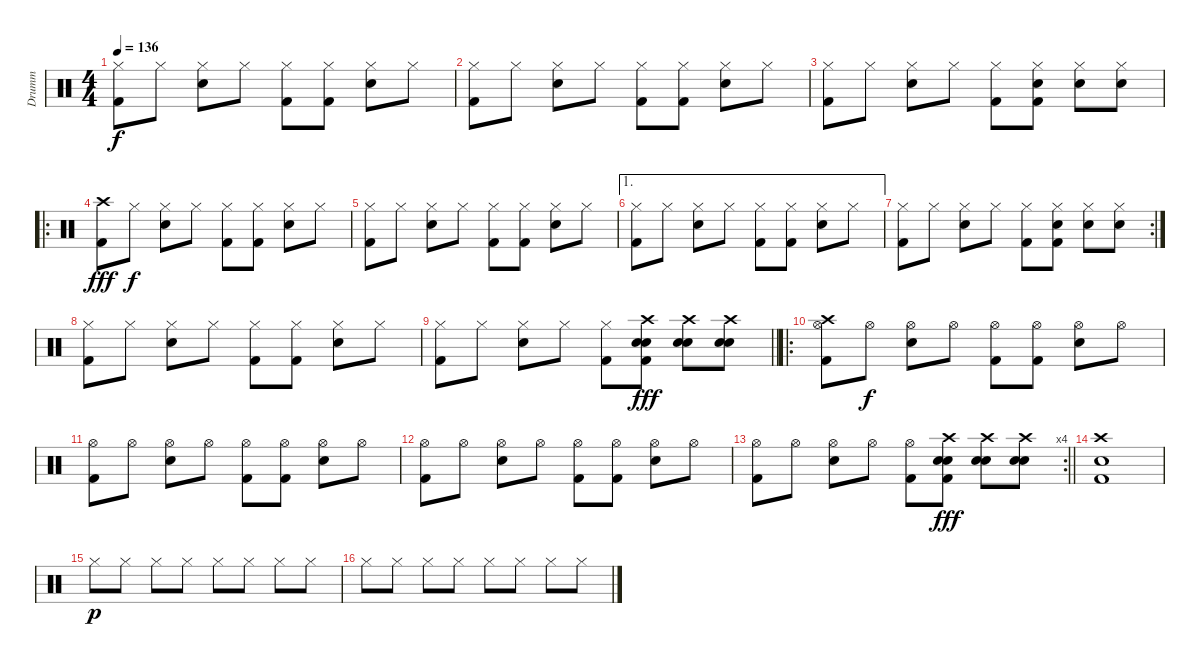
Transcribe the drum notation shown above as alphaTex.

\track ("Drumm" "Drumm") {instrument percussion}
\staff {score}
\articulation defaults
\ts (4 4)
\tempo 136
\clef neutral
\ks c
("Hi-Hat (closed)" "Kick (hit) 2").8{dy f} "Hi-Hat (closed)".8 ("Hi-Hat (closed)" "Snare (hit) 2").8 "Hi-Hat (closed)".8 ("Hi-Hat (closed)" "Kick (hit) 2").8 ("Hi-Hat (closed)" "Kick (hit) 2").8 ("Hi-Hat (closed)" "Snare (hit) 2").8 "Hi-Hat (closed)".8 |
("Hi-Hat (closed)" "Kick (hit) 2").8 "Hi-Hat (closed)".8 ("Hi-Hat (closed)" "Snare (hit) 2").8 "Hi-Hat (closed)".8 ("Hi-Hat (closed)" "Kick (hit) 2").8 ("Hi-Hat (closed)" "Kick (hit) 2").8 ("Hi-Hat (closed)" "Snare (hit) 2").8 "Hi-Hat (closed)".8 |
("Hi-Hat (closed)" "Kick (hit) 2").8 "Hi-Hat (closed)".8 ("Hi-Hat (closed)" "Snare (hit) 2").8 "Hi-Hat (closed)".8 ("Hi-Hat (closed)" "Kick (hit) 2").8 ("Hi-Hat (closed)" "Snare (hit) 2" "Kick (hit) 2").8 ("Hi-Hat (closed)" "Snare (hit) 2").8 ("Hi-Hat (closed)" "Snare (hit) 2").8 |
\ro
("Crash high (hit)" "Kick (hit) 2").8{dy fff} "Hi-Hat (closed)".8{dy f} ("Hi-Hat (closed)" "Snare (hit) 2").8 "Hi-Hat (closed)".8 ("Hi-Hat (closed)" "Kick (hit) 2").8 ("Hi-Hat (closed)" "Kick (hit) 2").8 ("Hi-Hat (closed)" "Snare (hit) 2").8 "Hi-Hat (closed)".8 |
("Hi-Hat (closed)" "Kick (hit) 2").8 "Hi-Hat (closed)".8 ("Hi-Hat (closed)" "Snare (hit) 2").8 "Hi-Hat (closed)".8 ("Hi-Hat (closed)" "Kick (hit) 2").8 ("Hi-Hat (closed)" "Kick (hit) 2").8 ("Hi-Hat (closed)" "Snare (hit) 2").8 "Hi-Hat (closed)".8 |
\ae 1
("Hi-Hat (closed)" "Kick (hit) 2").8 "Hi-Hat (closed)".8 ("Hi-Hat (closed)" "Snare (hit) 2").8 "Hi-Hat (closed)".8 ("Hi-Hat (closed)" "Kick (hit) 2").8 ("Hi-Hat (closed)" "Kick (hit) 2").8 ("Hi-Hat (closed)" "Snare (hit) 2").8 "Hi-Hat (closed)".8 |
\rc 2
("Hi-Hat (closed)" "Kick (hit) 2").8 "Hi-Hat (closed)".8 ("Hi-Hat (closed)" "Snare (hit) 2").8 "Hi-Hat (closed)".8 ("Hi-Hat (closed)" "Kick (hit) 2").8 ("Hi-Hat (closed)" "Snare (hit) 2" "Kick (hit) 2").8 ("Hi-Hat (closed)" "Snare (hit) 2").8 ("Hi-Hat (closed)" "Snare (hit) 2").8 |
("Hi-Hat (closed)" "Kick (hit) 2").8 "Hi-Hat (closed)".8 ("Hi-Hat (closed)" "Snare (hit) 2").8 "Hi-Hat (closed)".8 ("Hi-Hat (closed)" "Kick (hit) 2").8 ("Hi-Hat (closed)" "Kick (hit) 2").8 ("Hi-Hat (closed)" "Snare (hit) 2").8 "Hi-Hat (closed)".8 |
\barLineRight lightlight
("Hi-Hat (closed)" "Kick (hit) 2").8 "Hi-Hat (closed)".8 ("Hi-Hat (closed)" "Snare (hit) 2").8 "Hi-Hat (closed)".8 ("Hi-Hat (closed)" "Kick (hit) 2").8 ("Crash high (hit)" "Electric Snare (hit)" "Snare (hit) 2" "Kick (hit) 2").8{dy fff} ("Crash high (hit)" "Electric Snare (hit)" "Snare (hit) 2").8 ("Crash high (hit)" "Electric Snare (hit)" "Snare (hit) 2").8 |
\ro
("Crash high (hit)" "Hi-Hat (open)" "Kick (hit) 2").8 "Hi-Hat (open)".8{dy f} ("Hi-Hat (open)" "Snare (hit) 2").8 "Hi-Hat (open)".8 ("Hi-Hat (open)" "Kick (hit) 2").8 ("Hi-Hat (open)" "Kick (hit) 2").8 ("Hi-Hat (open)" "Snare (hit) 2").8 "Hi-Hat (open)".8 |
("Hi-Hat (open)" "Kick (hit) 2").8 "Hi-Hat (open)".8 ("Hi-Hat (open)" "Snare (hit) 2").8 "Hi-Hat (open)".8 ("Hi-Hat (open)" "Kick (hit) 2").8 ("Hi-Hat (open)" "Kick (hit) 2").8 ("Hi-Hat (open)" "Snare (hit) 2").8 "Hi-Hat (open)".8 |
("Hi-Hat (open)" "Kick (hit) 2").8 "Hi-Hat (open)".8 ("Hi-Hat (open)" "Snare (hit) 2").8 "Hi-Hat (open)".8 ("Hi-Hat (open)" "Kick (hit) 2").8 ("Hi-Hat (open)" "Kick (hit) 2").8 ("Hi-Hat (open)" "Snare (hit) 2").8 "Hi-Hat (open)".8 |
\rc 4
\barLineRight lightlight
("Hi-Hat (open)" "Kick (hit) 2").8 "Hi-Hat (open)".8 ("Hi-Hat (open)" "Snare (hit) 2").8 "Hi-Hat (open)".8 ("Hi-Hat (open)" "Kick (hit) 2").8 ("Crash high (hit)" "Electric Snare (hit)" "Snare (hit) 2" "Kick (hit) 2").8{dy fff} ("Crash high (hit)" "Electric Snare (hit)" "Snare (hit) 2").8 ("Crash high (hit)" "Electric Snare (hit)" "Snare (hit) 2").8 |
("Crash high (hit)" "Snare (hit) 2" "Kick (hit) 2").1 |
"Hi-Hat (closed)".8{dy p} "Hi-Hat (closed)".8 "Hi-Hat (closed)".8 "Hi-Hat (closed)".8 "Hi-Hat (closed)".8 "Hi-Hat (closed)".8 "Hi-Hat (closed)".8 "Hi-Hat (closed)".8 |
"Hi-Hat (closed)".8 "Hi-Hat (closed)".8 "Hi-Hat (closed)".8 "Hi-Hat (closed)".8 "Hi-Hat (closed)".8 "Hi-Hat (closed)".8 "Hi-Hat (closed)".8 "Hi-Hat (closed)".8
